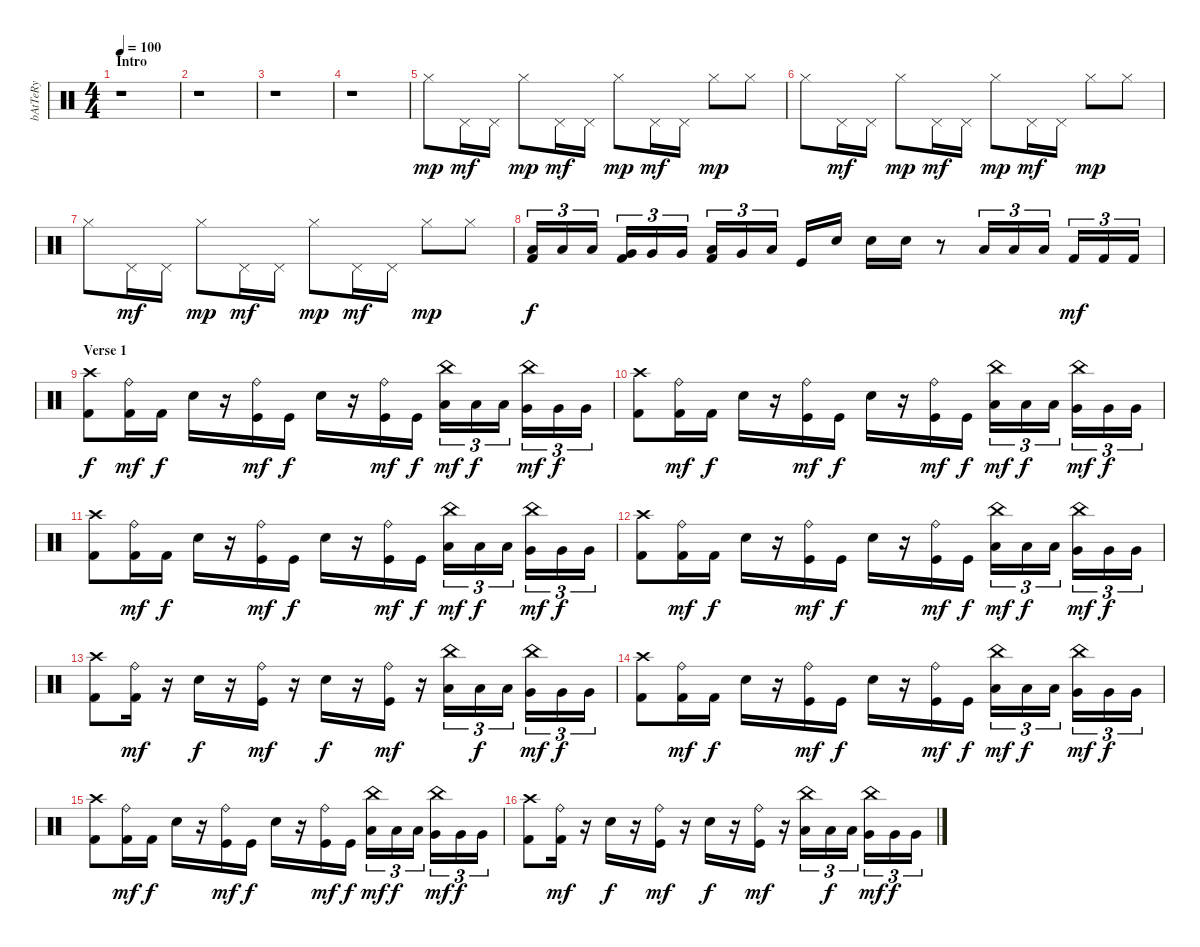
\track ("bAtTeRy" "bAtTeRy") {instrument percussion}
\staff {score}
\articulation defaults
\ts (4 4)
\section ("" "Intro")
\tempo 100
\clef neutral
\ks c
r.1{dy mp} |
r.1 |
r.1 |
r.1 |
"Hi-Hat (closed)".8 "Pedal Hi-Hat (hit)".16{dy mf} "Pedal Hi-Hat (hit)".16 "Hi-Hat (closed)".8{dy mp} "Pedal Hi-Hat (hit)".16{dy mf} "Pedal Hi-Hat (hit)".16 "Hi-Hat (closed)".8{dy mp} "Pedal Hi-Hat (hit)".16{dy mf} "Pedal Hi-Hat (hit)".16 "Hi-Hat (closed)".8{dy mp} "Hi-Hat (closed)".8 |
"Hi-Hat (closed)".8 "Pedal Hi-Hat (hit)".16{dy mf} "Pedal Hi-Hat (hit)".16 "Hi-Hat (closed)".8{dy mp} "Pedal Hi-Hat (hit)".16{dy mf} "Pedal Hi-Hat (hit)".16 "Hi-Hat (closed)".8{dy mp} "Pedal Hi-Hat (hit)".16{dy mf} "Pedal Hi-Hat (hit)".16 "Hi-Hat (closed)".8{dy mp} "Hi-Hat (closed)".8 |
"Hi-Hat (closed)".8 "Pedal Hi-Hat (hit)".16{dy mf} "Pedal Hi-Hat (hit)".16 "Hi-Hat (closed)".8{dy mp} "Pedal Hi-Hat (hit)".16{dy mf} "Pedal Hi-Hat (hit)".16 "Hi-Hat (closed)".8{dy mp} "Pedal Hi-Hat (hit)".16{dy mf} "Pedal Hi-Hat (hit)".16 "Hi-Hat (closed)".8{dy mp} "Hi-Hat (closed)".8 |
("Low Tom (hit)" "Kick (hit) 2").16{tu (3 2) dy f} "Low Tom (hit)".16{tu (3 2)} "Low Tom (hit)".16{tu (3 2)} ("Very Low Tom (hit)" "Kick (hit) 2").16{tu (3 2)} "Very Low Tom (hit)".16{tu (3 2)} "Very Low Tom (hit)".16{tu (3 2)} ("Low Floor Tom (hit)" "Kick (hit) 2").16{tu (3 2)} "Very Low Tom (hit)".16{tu (3 2)} "Low Floor Tom (hit)".16{tu (3 2)} "Kick (hit)".16 "Snare (hit) 2".16 "Snare (hit) 2".16 "Snare (hit) 2".16 r.8 "Low Tom (hit)".16{tu (3 2)} "Low Tom (hit)".16{tu (3 2)} "Low Tom (hit)".16{tu (3 2)} "Kick (hit) 2".16{tu (3 2) dy mf} "Kick (hit) 2".16{tu (3 2)} "Kick (hit) 2".16{tu (3 2)} |
\section ("" "Verse 1")
("Crash high (hit)" "Kick (hit) 2").8{dy f} ("Ride (bell)" "Kick (hit) 2").16{dy mf} "Kick (hit) 2".16{dy f} "Snare (hit) 2".16 r.16 ("Ride (bell)" "Kick (hit)").16{dy mf} "Kick (hit)".16{dy f} "Snare (hit) 2".16 r.16 ("Ride (bell)" "Kick (hit)").16{dy mf} "Kick (hit)".16{dy f} ("China (hit)" "Low Tom (hit)").16{tu (3 2) dy mf} "Low Tom (hit)".16{tu (3 2) dy f} "Low Tom (hit)".16{tu (3 2)} ("China (hit)" "Very Low Tom (hit)").16{tu (3 2) dy mf} "Very Low Tom (hit)".16{tu (3 2) dy f} "Very Low Tom (hit)".16{tu (3 2)} |
("Crash high (hit)" "Kick (hit) 2").8 ("Ride (bell)" "Kick (hit) 2").16{dy mf} "Kick (hit) 2".16{dy f} "Snare (hit) 2".16 r.16 ("Ride (bell)" "Kick (hit)").16{dy mf} "Kick (hit)".16{dy f} "Snare (hit) 2".16 r.16 ("Ride (bell)" "Kick (hit)").16{dy mf} "Kick (hit)".16{dy f} ("China (hit)" "Low Tom (hit)").16{tu (3 2) dy mf} "Low Tom (hit)".16{tu (3 2) dy f} "Low Tom (hit)".16{tu (3 2)} ("China (hit)" "Very Low Tom (hit)").16{tu (3 2) dy mf} "Very Low Tom (hit)".16{tu (3 2) dy f} "Very Low Tom (hit)".16{tu (3 2)} |
("Crash high (hit)" "Kick (hit) 2").8 ("Ride (bell)" "Kick (hit) 2").16{dy mf} "Kick (hit) 2".16{dy f} "Snare (hit) 2".16 r.16 ("Ride (bell)" "Kick (hit)").16{dy mf} "Kick (hit)".16{dy f} "Snare (hit) 2".16 r.16 ("Ride (bell)" "Kick (hit)").16{dy mf} "Kick (hit)".16{dy f} ("China (hit)" "Low Tom (hit)").16{tu (3 2) dy mf} "Low Tom (hit)".16{tu (3 2) dy f} "Low Tom (hit)".16{tu (3 2)} ("China (hit)" "Very Low Tom (hit)").16{tu (3 2) dy mf} "Very Low Tom (hit)".16{tu (3 2) dy f} "Very Low Tom (hit)".16{tu (3 2)} |
("Crash high (hit)" "Kick (hit) 2").8 ("Ride (bell)" "Kick (hit) 2").16{dy mf} "Kick (hit) 2".16{dy f} "Snare (hit) 2".16 r.16 ("Ride (bell)" "Kick (hit)").16{dy mf} "Kick (hit)".16{dy f} "Snare (hit) 2".16 r.16 ("Ride (bell)" "Kick (hit)").16{dy mf} "Kick (hit)".16{dy f} ("China (hit)" "Low Tom (hit)").16{tu (3 2) dy mf} "Low Tom (hit)".16{tu (3 2) dy f} "Low Tom (hit)".16{tu (3 2)} ("China (hit)" "Very Low Tom (hit)").16{tu (3 2) dy mf} "Very Low Tom (hit)".16{tu (3 2) dy f} "Very Low Tom (hit)".16{tu (3 2)} |
("Crash high (hit)" "Kick (hit) 2").8 ("Ride (bell)" "Kick (hit) 2").16{dy mf} r.16 "Snare (hit) 2".16{dy f} r.16 ("Ride (bell)" "Kick (hit)").16{dy mf} r.16 "Snare (hit) 2".16{dy f} r.16 ("Ride (bell)" "Kick (hit)").16{dy mf} r.16 ("China (hit)" "Low Tom (hit)").16{tu (3 2)} "Low Tom (hit)".16{tu (3 2) dy f} "Low Tom (hit)".16{tu (3 2)} ("China (hit)" "Very Low Tom (hit)").16{tu (3 2) dy mf} "Very Low Tom (hit)".16{tu (3 2) dy f} "Very Low Tom (hit)".16{tu (3 2)} |
("Crash high (hit)" "Kick (hit) 2").8 ("Ride (bell)" "Kick (hit) 2").16{dy mf} "Kick (hit) 2".16{dy f} "Snare (hit) 2".16 r.16 ("Ride (bell)" "Kick (hit)").16{dy mf} "Kick (hit)".16{dy f} "Snare (hit) 2".16 r.16 ("Ride (bell)" "Kick (hit)").16{dy mf} "Kick (hit)".16{dy f} ("China (hit)" "Low Tom (hit)").16{tu (3 2) dy mf} "Low Tom (hit)".16{tu (3 2) dy f} "Low Tom (hit)".16{tu (3 2)} ("China (hit)" "Very Low Tom (hit)").16{tu (3 2) dy mf} "Very Low Tom (hit)".16{tu (3 2) dy f} "Very Low Tom (hit)".16{tu (3 2)} |
("Crash high (hit)" "Kick (hit) 2").8 ("Ride (bell)" "Kick (hit) 2").16{dy mf} "Kick (hit) 2".16{dy f} "Snare (hit) 2".16 r.16 ("Ride (bell)" "Kick (hit)").16{dy mf} "Kick (hit)".16{dy f} "Snare (hit) 2".16 r.16 ("Ride (bell)" "Kick (hit)").16{dy mf} "Kick (hit)".16{dy f} ("China (hit)" "Low Tom (hit)").16{tu (3 2) dy mf} "Low Tom (hit)".16{tu (3 2) dy f} "Low Tom (hit)".16{tu (3 2)} ("China (hit)" "Very Low Tom (hit)").16{tu (3 2) dy mf} "Very Low Tom (hit)".16{tu (3 2) dy f} "Very Low Tom (hit)".16{tu (3 2)} |
("Crash high (hit)" "Kick (hit) 2").8 ("Ride (bell)" "Kick (hit) 2").16{dy mf} r.16 "Snare (hit) 2".16{dy f} r.16 ("Ride (bell)" "Kick (hit)").16{dy mf} r.16 "Snare (hit) 2".16{dy f} r.16 ("Ride (bell)" "Kick (hit)").16{dy mf} r.16 ("China (hit)" "Low Tom (hit)").16{tu (3 2)} "Low Tom (hit)".16{tu (3 2) dy f} "Low Tom (hit)".16{tu (3 2)} ("China (hit)" "Very Low Tom (hit)").16{tu (3 2) dy mf} "Very Low Tom (hit)".16{tu (3 2) dy f} "Very Low Tom (hit)".16{tu (3 2)}
